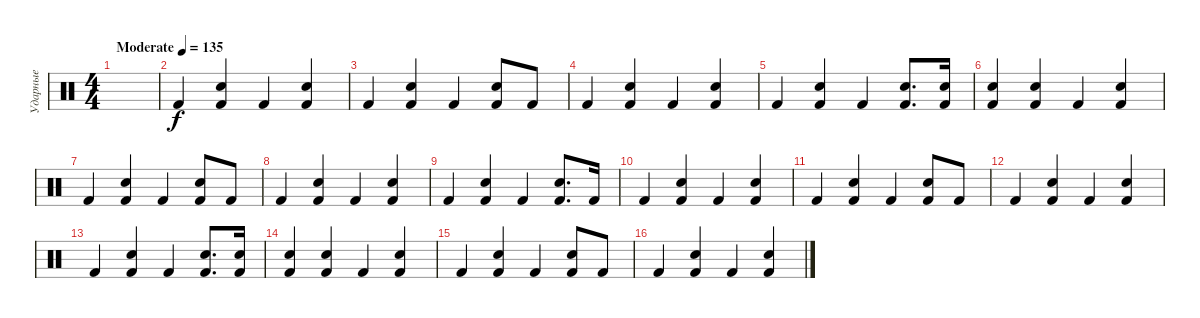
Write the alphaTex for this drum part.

\track ("Ударные" "Ударные") {instrument percussion}
\staff {score}
\articulation defaults
\ts (4 4)
\tempo (135 "Moderate")
\clef neutral
\ks c
|
"Kick (hit) 2".4 ("Hand Clap (hit)" "Kick (hit) 2").4 "Kick (hit) 2".4 ("Hand Clap (hit)" "Kick (hit) 2").4 |
"Kick (hit) 2".4 ("Hand Clap (hit)" "Kick (hit) 2").4 "Kick (hit) 2".4 ("Hand Clap (hit)" "Kick (hit) 2").8 "Kick (hit) 2".8 |
"Kick (hit) 2".4 ("Hand Clap (hit)" "Kick (hit) 2").4 "Kick (hit) 2".4 ("Hand Clap (hit)" "Kick (hit) 2").4 |
"Kick (hit) 2".4 ("Hand Clap (hit)" "Kick (hit) 2").4 "Kick (hit) 2".4 ("Hand Clap (hit)" "Kick (hit) 2").8{d} ("Hand Clap (hit)" "Kick (hit) 2").16 |
("Hand Clap (hit)" "Kick (hit) 2").4 ("Hand Clap (hit)" "Kick (hit) 2").4 "Kick (hit) 2".4 ("Hand Clap (hit)" "Kick (hit) 2").4 |
"Kick (hit) 2".4 ("Hand Clap (hit)" "Kick (hit) 2").4 "Kick (hit) 2".4 ("Hand Clap (hit)" "Kick (hit) 2").8 "Kick (hit) 2".8 |
"Kick (hit) 2".4 ("Hand Clap (hit)" "Kick (hit) 2").4 "Kick (hit) 2".4 ("Hand Clap (hit)" "Kick (hit) 2").4 |
"Kick (hit) 2".4 ("Hand Clap (hit)" "Kick (hit) 2").4 "Kick (hit) 2".4 ("Hand Clap (hit)" "Kick (hit) 2").8{d} "Kick (hit) 2".16 |
"Kick (hit) 2".4 ("Hand Clap (hit)" "Kick (hit) 2").4 "Kick (hit) 2".4 ("Hand Clap (hit)" "Kick (hit) 2").4 |
"Kick (hit) 2".4 ("Hand Clap (hit)" "Kick (hit) 2").4 "Kick (hit) 2".4 ("Hand Clap (hit)" "Kick (hit) 2").8 "Kick (hit) 2".8 |
"Kick (hit) 2".4 ("Hand Clap (hit)" "Kick (hit) 2").4 "Kick (hit) 2".4 ("Hand Clap (hit)" "Kick (hit) 2").4 |
"Kick (hit) 2".4 ("Hand Clap (hit)" "Kick (hit) 2").4 "Kick (hit) 2".4 ("Hand Clap (hit)" "Kick (hit) 2").8{d} ("Hand Clap (hit)" "Kick (hit) 2").16 |
("Hand Clap (hit)" "Kick (hit) 2").4 ("Hand Clap (hit)" "Kick (hit) 2").4 "Kick (hit) 2".4 ("Hand Clap (hit)" "Kick (hit) 2").4 |
"Kick (hit) 2".4 ("Hand Clap (hit)" "Kick (hit) 2").4 "Kick (hit) 2".4 ("Hand Clap (hit)" "Kick (hit) 2").8 "Kick (hit) 2".8 |
"Kick (hit) 2".4 ("Hand Clap (hit)" "Kick (hit) 2").4 "Kick (hit) 2".4 ("Hand Clap (hit)" "Kick (hit) 2").4
